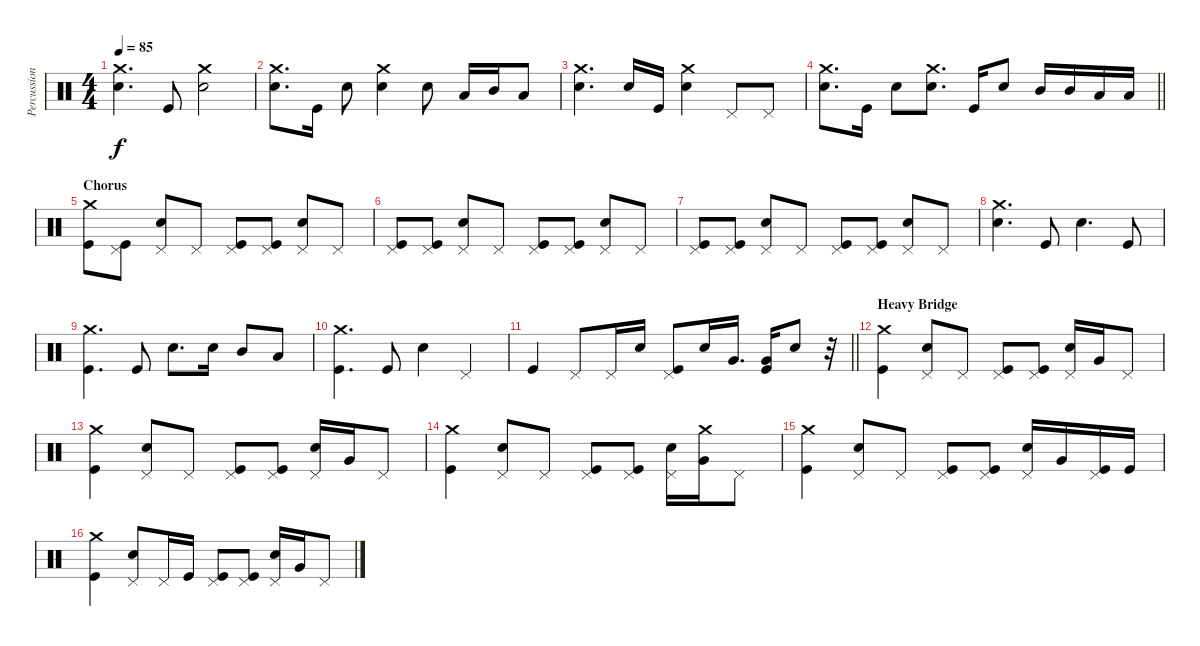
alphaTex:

\track ("Percussion" "Percussion") {instrument percussion}
\staff {score}
\articulation defaults
\ts (4 4)
\tempo 85
\clef neutral
\ks c
("Snare (hit) 2" "Crash medium (hit)").4{d dy f} "Kick (hit)".8 ("Snare (hit) 2" "Crash medium (hit)").2 |
("Snare (hit) 2" "Crash medium (hit)").8{d} "Kick (hit)".16 "Snare (hit) 2".8 ("Snare (hit) 2" "Crash medium (hit)").4 "Snare (hit) 2".8 "Low Floor Tom (hit)".16 "Mid Tom (hit)".16 "Low Floor Tom (hit)".8 |
("Snare (hit) 2" "Crash medium (hit)").4{d} "Snare (hit) 2".16 "Kick (hit)".16 ("Snare (hit) 2" "Crash medium (hit)").4 "Pedal Hi-Hat (hit)".8 "Pedal Hi-Hat (hit)".8 |
\barLineRight lightlight
("Snare (hit) 2" "Crash medium (hit)").8{d} "Kick (hit)".16 "Snare (hit) 2".8 ("Snare (hit) 2" "Crash medium (hit)").8{d} "Kick (hit)".16 "Snare (hit) 2".8 "Mid Tom (hit)".16 "Mid Tom (hit)".16 "Low Floor Tom (hit)".16 "Low Floor Tom (hit)".16 |
\section ("" "Chorus")
("Crash medium (hit)" "Kick (hit)").8 ("Pedal Hi-Hat (hit)" "Kick (hit)").8 ("Pedal Hi-Hat (hit)" "Snare (hit) 2").8 "Pedal Hi-Hat (hit)".8 ("Pedal Hi-Hat (hit)" "Kick (hit)").8 ("Pedal Hi-Hat (hit)" "Kick (hit)").8 ("Pedal Hi-Hat (hit)" "Snare (hit) 2").8 "Pedal Hi-Hat (hit)".8 |
("Pedal Hi-Hat (hit)" "Kick (hit)").8 ("Pedal Hi-Hat (hit)" "Kick (hit)").8 ("Pedal Hi-Hat (hit)" "Snare (hit) 2").8 "Pedal Hi-Hat (hit)".8 ("Pedal Hi-Hat (hit)" "Kick (hit)").8 ("Pedal Hi-Hat (hit)" "Kick (hit)").8 ("Pedal Hi-Hat (hit)" "Snare (hit) 2").8 "Pedal Hi-Hat (hit)".8 |
("Pedal Hi-Hat (hit)" "Kick (hit)").8 ("Pedal Hi-Hat (hit)" "Kick (hit)").8 ("Pedal Hi-Hat (hit)" "Snare (hit) 2").8 "Pedal Hi-Hat (hit)".8 ("Pedal Hi-Hat (hit)" "Kick (hit)").8 ("Pedal Hi-Hat (hit)" "Kick (hit)").8 ("Pedal Hi-Hat (hit)" "Snare (hit) 2").8 "Pedal Hi-Hat (hit)".8 |
("Snare (hit) 2" "Crash medium (hit)").4{d} "Kick (hit)".8 "Snare (hit) 2".4{d} "Kick (hit)".8 |
("Crash medium (hit)" "Kick (hit)").4{d} "Kick (hit)".8 "Snare (hit) 2".8{d} "Snare (hit) 2".16 "Mid Tom (hit)".8 "Low Floor Tom (hit)".8 |
("Crash medium (hit)" "Kick (hit)").4{d} "Kick (hit)".8 "Snare (hit) 2".4 "Pedal Hi-Hat (hit)".4 |
\barLineRight lightlight "Kick (hit)".4 "Pedal Hi-Hat (hit)".8 "Pedal Hi-Hat (hit)".16 "Snare (hit) 2".16
("Pedal Hi-Hat (hit)" "Kick (hit)").8 "Snare (hit) 2".16 "Very Low Tom (hit)".16{d} ("Very Low Tom (hit)" "Kick (hit)").16 "Snare (hit) 2".8 r.32 |
\section ("" "Heavy Bridge")
("Crash medium (hit)" "Kick (hit)").4 ("Pedal Hi-Hat (hit)" "Snare (hit) 2").8 "Pedal Hi-Hat (hit)".8 ("Pedal Hi-Hat (hit)" "Kick (hit)").8 ("Pedal Hi-Hat (hit)" "Kick (hit)").8 ("Pedal Hi-Hat (hit)" "Snare (hit) 2").16 "Very Low Tom (hit)".16 "Pedal Hi-Hat (hit)".8 |
("Crash medium (hit)" "Kick (hit)").4 ("Pedal Hi-Hat (hit)" "Snare (hit) 2").8 "Pedal Hi-Hat (hit)".8 ("Pedal Hi-Hat (hit)" "Kick (hit)").8 ("Pedal Hi-Hat (hit)" "Kick (hit)").8 ("Pedal Hi-Hat (hit)" "Snare (hit) 2").16 "Very Low Tom (hit)".16 "Pedal Hi-Hat (hit)".8 |
("Crash medium (hit)" "Kick (hit)").4 ("Pedal Hi-Hat (hit)" "Snare (hit) 2").8 "Pedal Hi-Hat (hit)".8 ("Pedal Hi-Hat (hit)" "Kick (hit)").8 ("Pedal Hi-Hat (hit)" "Kick (hit)").8 ("Pedal Hi-Hat (hit)" "Snare (hit) 2").16 ("Crash medium (hit)" "Very Low Tom (hit)").16 "Pedal Hi-Hat (hit)".8 |
("Crash medium (hit)" "Kick (hit)").4 ("Pedal Hi-Hat (hit)" "Snare (hit) 2").8 "Pedal Hi-Hat (hit)".8 ("Pedal Hi-Hat (hit)" "Kick (hit)").8 ("Pedal Hi-Hat (hit)" "Kick (hit)").8 ("Pedal Hi-Hat (hit)" "Snare (hit) 2").16 "Very Low Tom (hit)".16 ("Pedal Hi-Hat (hit)" "Kick (hit)").16 "Kick (hit)".16 |
("Crash medium (hit)" "Kick (hit)").4 ("Pedal Hi-Hat (hit)" "Snare (hit) 2").8 "Pedal Hi-Hat (hit)".16 "Kick (hit)".16 ("Pedal Hi-Hat (hit)" "Kick (hit)").8 ("Pedal Hi-Hat (hit)" "Kick (hit)").8 ("Pedal Hi-Hat (hit)" "Snare (hit) 2").16 "Very Low Tom (hit)".16 "Pedal Hi-Hat (hit)".8
